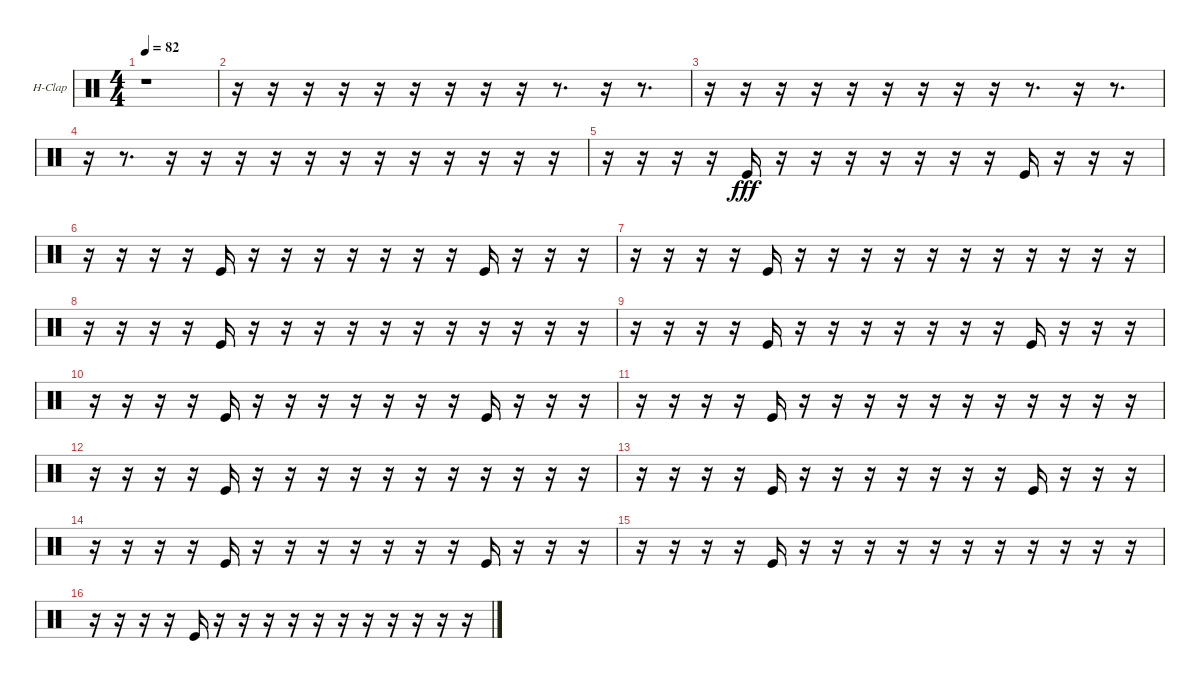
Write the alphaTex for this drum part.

\bracketExtendMode groupsimilarinstruments
\firstSystemTrackNameOrientation horizontal
\otherSystemsTrackNameOrientation horizontal
\track ("Hand Clap" "H-Clap") {instrument percussion}
\staff {score}
\articulation defaults
\ts (4 4)
\tempo 82
\clef neutral
\ks c
r.1{dy fff} |
r.16 r.16 r.16 r.16 r.16 r.16 r.16 r.16 r.16 r.8{d} r.16 r.8{d} |
r.16 r.16 r.16 r.16 r.16 r.16 r.16 r.16 r.16 r.8{d} r.16 r.8{d} |
r.16 r.8{d} r.16 r.16 r.16 r.16 r.16 r.16 r.16 r.16 r.16 r.16 r.16 r.16 |
r.16 r.16 r.16 r.16 "Kick (hit)".16 r.16 r.16 r.16 r.16 r.16 r.16 r.16 "Kick (hit)".16 r.16 r.16 r.16 |
r.16 r.16 r.16 r.16 "Kick (hit)".16 r.16 r.16 r.16 r.16 r.16 r.16 r.16 "Kick (hit)".16 r.16 r.16 r.16 |
r.16 r.16 r.16 r.16 "Kick (hit)".16 r.16 r.16 r.16 r.16 r.16 r.16 r.16 r.16 r.16 r.16 r.16 |
r.16 r.16 r.16 r.16 "Kick (hit)".16 r.16 r.16 r.16 r.16 r.16 r.16 r.16 r.16 r.16 r.16 r.16 |
r.16 r.16 r.16 r.16 "Kick (hit)".16 r.16 r.16 r.16 r.16 r.16 r.16 r.16 "Kick (hit)".16 r.16 r.16 r.16 |
r.16 r.16 r.16 r.16 "Kick (hit)".16 r.16 r.16 r.16 r.16 r.16 r.16 r.16 "Kick (hit)".16 r.16 r.16 r.16 |
r.16 r.16 r.16 r.16 "Kick (hit)".16 r.16 r.16 r.16 r.16 r.16 r.16 r.16 r.16 r.16 r.16 r.16 |
r.16 r.16 r.16 r.16 "Kick (hit)".16 r.16 r.16 r.16 r.16 r.16 r.16 r.16 r.16 r.16 r.16 r.16 |
r.16 r.16 r.16 r.16 "Kick (hit)".16 r.16 r.16 r.16 r.16 r.16 r.16 r.16 "Kick (hit)".16 r.16 r.16 r.16 |
r.16 r.16 r.16 r.16 "Kick (hit)".16 r.16 r.16 r.16 r.16 r.16 r.16 r.16 "Kick (hit)".16 r.16 r.16 r.16 |
r.16 r.16 r.16 r.16 "Kick (hit)".16 r.16 r.16 r.16 r.16 r.16 r.16 r.16 r.16 r.16 r.16 r.16 |
r.16 r.16 r.16 r.16 "Kick (hit)".16 r.16 r.16 r.16 r.16 r.16 r.16 r.16 r.16 r.16 r.16 r.16
